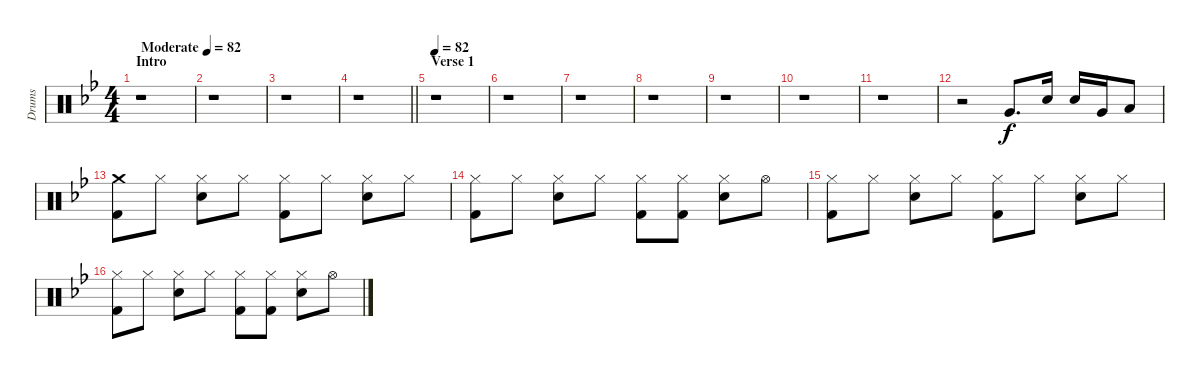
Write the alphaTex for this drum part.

\track ("Drums" "Drums") {instrument percussion}
\staff {score}
\articulation defaults
\ts (4 4)
\section ("" "Intro")
\tempo (82 "Moderate")
\tempo 74
\tempo (82 "Moderate")
\clef neutral
\ks gminor
r.1{dy f} |
r.1 |
r.1 |
\barLineRight lightlight
r.1 |
\section ("" "Verse 1")
\tempo 82
r.1 |
r.1 |
r.1 |
r.1 |
r.1 |
r.1 |
r.1 |
r.2 "Very Low Tom (hit)".8{d} "Snare (hit) 2".16 "Snare (hit) 2".16 "Very Low Tom (hit)".16 "Low Floor Tom (hit)".8 |
("Crash medium (hit)" "Kick (hit) 2").8 "Hi-Hat (closed)".8 ("Hi-Hat (closed)" "Snare (hit) 2").8 "Hi-Hat (closed)".8 ("Hi-Hat (closed)" "Kick (hit) 2").8 "Hi-Hat (closed)".8 ("Hi-Hat (closed)" "Snare (hit) 2").8 "Hi-Hat (closed)".8 |
("Hi-Hat (closed)" "Kick (hit) 2").8 "Hi-Hat (closed)".8 ("Hi-Hat (closed)" "Snare (hit) 2").8 "Hi-Hat (closed)".8 ("Hi-Hat (closed)" "Kick (hit) 2").8 ("Hi-Hat (closed)" "Kick (hit) 2").8 ("Hi-Hat (closed)" "Snare (hit) 2").8 "Hi-Hat (open)".8 |
("Hi-Hat (closed)" "Kick (hit) 2").8 "Hi-Hat (closed)".8 ("Hi-Hat (closed)" "Snare (hit) 2").8 "Hi-Hat (closed)".8 ("Hi-Hat (closed)" "Kick (hit) 2").8 "Hi-Hat (closed)".8 ("Hi-Hat (closed)" "Snare (hit) 2").8 "Hi-Hat (closed)".8 |
("Hi-Hat (closed)" "Kick (hit) 2").8 "Hi-Hat (closed)".8 ("Hi-Hat (closed)" "Snare (hit) 2").8 "Hi-Hat (closed)".8 ("Hi-Hat (closed)" "Kick (hit) 2").8 ("Hi-Hat (closed)" "Kick (hit) 2").8 ("Hi-Hat (closed)" "Snare (hit) 2").8 "Hi-Hat (open)".8
